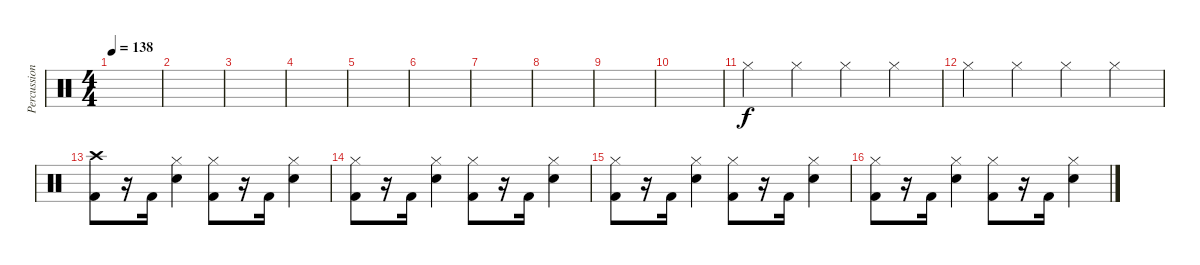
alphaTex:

\track ("Percussions" "Percussion") {instrument percussion}
\staff {score}
\articulation defaults
\ts (4 4)
\tempo 138
\clef neutral
\ks c
|
|
|
|
|
|
|
|
|
|
"Hi-Hat (closed)".4 "Hi-Hat (closed)".4 "Hi-Hat (closed)".4 "Hi-Hat (closed)".4 |
"Hi-Hat (closed)".4 "Hi-Hat (closed)".4 "Hi-Hat (closed)".4 "Hi-Hat (closed)".4 |
("Crash high (hit)" "Kick (hit) 2").8 r.16 "Kick (hit) 2".16 ("Hi-Hat (closed)" "Snare (hit) 2").4 ("Hi-Hat (closed)" "Kick (hit) 2").8 r.16 "Kick (hit) 2".16 ("Hi-Hat (closed)" "Snare (hit) 2").4 |
("Hi-Hat (closed)" "Kick (hit) 2").8 r.16 "Kick (hit) 2".16 ("Hi-Hat (closed)" "Snare (hit) 2").4 ("Hi-Hat (closed)" "Kick (hit) 2").8 r.16 "Kick (hit) 2".16 ("Hi-Hat (closed)" "Snare (hit) 2").4 |
("Hi-Hat (closed)" "Kick (hit) 2").8 r.16 "Kick (hit) 2".16 ("Hi-Hat (closed)" "Snare (hit) 2").4 ("Hi-Hat (closed)" "Kick (hit) 2").8 r.16 "Kick (hit) 2".16 ("Hi-Hat (closed)" "Snare (hit) 2").4 |
("Hi-Hat (closed)" "Kick (hit) 2").8 r.16 "Kick (hit) 2".16 ("Hi-Hat (closed)" "Snare (hit) 2").4 ("Hi-Hat (closed)" "Kick (hit) 2").8 r.16 "Kick (hit) 2".16 ("Hi-Hat (closed)" "Snare (hit) 2").4
